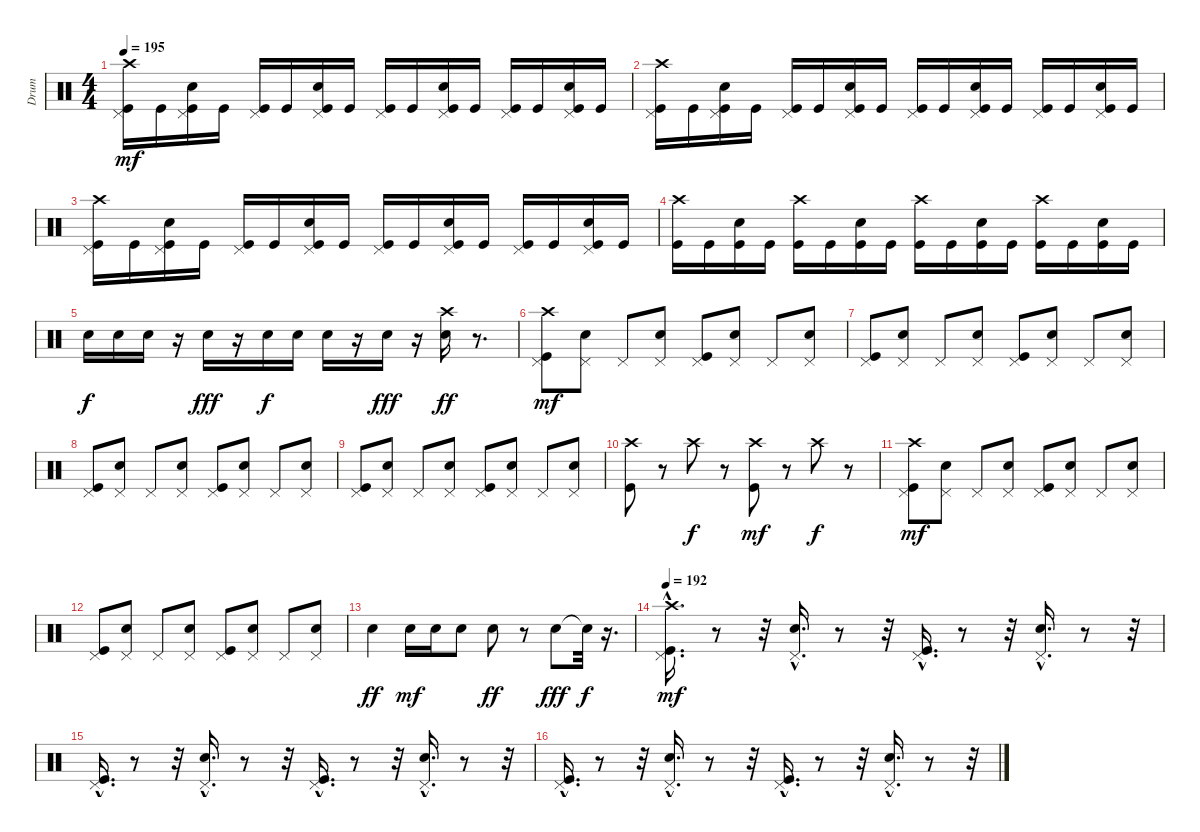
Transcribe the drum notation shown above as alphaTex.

\track ("Drum" "Drum") {instrument percussion}
\staff {score}
\articulation defaults
\ts (4 4)
\tempo 195
\clef neutral
\ks c
("Crash high (hit)" "Pedal Hi-Hat (hit)" "Kick (hit)").16{dy mf} "Kick (hit)".16 ("Pedal Hi-Hat (hit)" "Snare (hit) 2" "Kick (hit)").16 "Kick (hit)".16 ("Pedal Hi-Hat (hit)" "Kick (hit)").16 "Kick (hit)".16 ("Pedal Hi-Hat (hit)" "Snare (hit) 2" "Kick (hit)").16 "Kick (hit)".16 ("Pedal Hi-Hat (hit)" "Kick (hit)").16 "Kick (hit)".16 ("Pedal Hi-Hat (hit)" "Snare (hit) 2" "Kick (hit)").16 "Kick (hit)".16 ("Pedal Hi-Hat (hit)" "Kick (hit)").16 "Kick (hit)".16 ("Pedal Hi-Hat (hit)" "Snare (hit) 2" "Kick (hit)").16 "Kick (hit)".16 |
("Crash high (hit)" "Pedal Hi-Hat (hit)" "Kick (hit)").16 "Kick (hit)".16 ("Pedal Hi-Hat (hit)" "Snare (hit) 2" "Kick (hit)").16 "Kick (hit)".16 ("Pedal Hi-Hat (hit)" "Kick (hit)").16 "Kick (hit)".16 ("Pedal Hi-Hat (hit)" "Snare (hit) 2" "Kick (hit)").16 "Kick (hit)".16 ("Pedal Hi-Hat (hit)" "Kick (hit)").16 "Kick (hit)".16 ("Pedal Hi-Hat (hit)" "Snare (hit) 2" "Kick (hit)").16 "Kick (hit)".16 ("Pedal Hi-Hat (hit)" "Kick (hit)").16 "Kick (hit)".16 ("Pedal Hi-Hat (hit)" "Snare (hit) 2" "Kick (hit)").16 "Kick (hit)".16 |
("Crash high (hit)" "Pedal Hi-Hat (hit)" "Kick (hit)").16 "Kick (hit)".16 ("Pedal Hi-Hat (hit)" "Snare (hit) 2" "Kick (hit)").16 "Kick (hit)".16 ("Pedal Hi-Hat (hit)" "Kick (hit)").16 "Kick (hit)".16 ("Pedal Hi-Hat (hit)" "Snare (hit) 2" "Kick (hit)").16 "Kick (hit)".16 ("Pedal Hi-Hat (hit)" "Kick (hit)").16 "Kick (hit)".16 ("Pedal Hi-Hat (hit)" "Snare (hit) 2" "Kick (hit)").16 "Kick (hit)".16 ("Pedal Hi-Hat (hit)" "Kick (hit)").16 "Kick (hit)".16 ("Pedal Hi-Hat (hit)" "Snare (hit) 2" "Kick (hit)").16 "Kick (hit)".16 |
("Crash high (hit)" "Kick (hit)").16 "Kick (hit)".16 ("Snare (hit) 2" "Kick (hit)").16 "Kick (hit)".16 ("Crash high (hit)" "Kick (hit)").16 "Kick (hit)".16 ("Snare (hit) 2" "Kick (hit)").16 "Kick (hit)".16 ("Crash high (hit)" "Kick (hit)").16 "Kick (hit)".16 ("Snare (hit) 2" "Kick (hit)").16 "Kick (hit)".16 ("Crash high (hit)" "Kick (hit)").16 "Kick (hit)".16 ("Snare (hit) 2" "Kick (hit)").16 "Kick (hit)".16 |
"Snare (hit) 2".16{dy f} "Snare (hit) 2".16 "Snare (hit) 2".16 r.16 "Snare (hit) 2".16{dy fff} r.16 "Snare (hit) 2".16{dy f} "Snare (hit) 2".16 "Snare (hit) 2".16 r.16 "Snare (hit) 2".16{dy fff} r.16 ("Crash high (hit)" "Snare (hit) 2").16{dy ff} r.8{d} |
("Pedal Hi-Hat (hit)" "Kick (hit)" "Crash high (hit)").8{dy mf} ("Pedal Hi-Hat (hit)" "Snare (hit) 2").8 "Pedal Hi-Hat (hit)".8 ("Pedal Hi-Hat (hit)" "Snare (hit) 2").8 ("Pedal Hi-Hat (hit)" "Kick (hit)").8 ("Pedal Hi-Hat (hit)" "Snare (hit) 2").8 "Pedal Hi-Hat (hit)".8 ("Pedal Hi-Hat (hit)" "Snare (hit) 2").8 |
("Pedal Hi-Hat (hit)" "Kick (hit)").8 ("Pedal Hi-Hat (hit)" "Snare (hit) 2").8 "Pedal Hi-Hat (hit)".8 ("Pedal Hi-Hat (hit)" "Snare (hit) 2").8 ("Pedal Hi-Hat (hit)" "Kick (hit)").8 ("Pedal Hi-Hat (hit)" "Snare (hit) 2").8 "Pedal Hi-Hat (hit)".8 ("Pedal Hi-Hat (hit)" "Snare (hit) 2").8 |
("Pedal Hi-Hat (hit)" "Kick (hit)").8 ("Pedal Hi-Hat (hit)" "Snare (hit) 2").8 "Pedal Hi-Hat (hit)".8 ("Pedal Hi-Hat (hit)" "Snare (hit) 2").8 ("Pedal Hi-Hat (hit)" "Kick (hit)").8 ("Pedal Hi-Hat (hit)" "Snare (hit) 2").8 "Pedal Hi-Hat (hit)".8 ("Pedal Hi-Hat (hit)" "Snare (hit) 2").8 |
("Pedal Hi-Hat (hit)" "Kick (hit)").8 ("Pedal Hi-Hat (hit)" "Snare (hit) 2").8 "Pedal Hi-Hat (hit)".8 ("Pedal Hi-Hat (hit)" "Snare (hit) 2").8 ("Pedal Hi-Hat (hit)" "Kick (hit)").8 ("Pedal Hi-Hat (hit)" "Snare (hit) 2").8 "Pedal Hi-Hat (hit)".8 ("Pedal Hi-Hat (hit)" "Snare (hit) 2").8 |
("Crash high (hit)" "Kick (hit)").8 r.8 "Crash high (hit)".8{dy f} r.8 ("Crash high (hit)" "Kick (hit)").8{dy mf} r.8 "Crash high (hit)".8{dy f} r.8 |
("Pedal Hi-Hat (hit)" "Kick (hit)" "Crash high (hit)").8{dy mf} ("Pedal Hi-Hat (hit)" "Snare (hit) 2").8 "Pedal Hi-Hat (hit)".8 ("Pedal Hi-Hat (hit)" "Snare (hit) 2").8 ("Pedal Hi-Hat (hit)" "Kick (hit)").8 ("Pedal Hi-Hat (hit)" "Snare (hit) 2").8 "Pedal Hi-Hat (hit)".8 ("Pedal Hi-Hat (hit)" "Snare (hit) 2").8 |
("Pedal Hi-Hat (hit)" "Kick (hit)").8 ("Pedal Hi-Hat (hit)" "Snare (hit) 2").8 "Pedal Hi-Hat (hit)".8 ("Pedal Hi-Hat (hit)" "Snare (hit) 2").8 ("Pedal Hi-Hat (hit)" "Kick (hit)").8 ("Pedal Hi-Hat (hit)" "Snare (hit) 2").8 "Pedal Hi-Hat (hit)".8 ("Pedal Hi-Hat (hit)" "Snare (hit) 2").8 |
"Snare (hit) 2".4{dy ff} "Snare (hit) 2".16{dy mf} "Snare (hit) 2".16 "Snare (hit) 2".8 "Snare (hit) 2".8{dy ff} r.8 "Snare (hit) 2".8{dy fff} "Snare (hit)"{t}.32{dy f} r.16{d} |
\tempo 192
("Crash high (hit)" "Pedal Hi-Hat (hit)" "Kick (hit)"{hac}).16{d dy mf} r.8 r.32 ("Pedal Hi-Hat (hit)" "Snare (hit) 2"{hac}).16{d} r.8 r.32 ("Pedal Hi-Hat (hit)" "Kick (hit)"{hac}).16{d} r.8 r.32 ("Pedal Hi-Hat (hit)" "Snare (hit) 2"{hac}).16{d} r.8 r.32 |
("Pedal Hi-Hat (hit)" "Kick (hit)"{hac}).16{d} r.8 r.32 ("Pedal Hi-Hat (hit)" "Snare (hit) 2"{hac}).16{d} r.8 r.32 ("Pedal Hi-Hat (hit)" "Kick (hit)"{hac}).16{d} r.8 r.32 ("Pedal Hi-Hat (hit)" "Snare (hit) 2"{hac}).16{d} r.8 r.32 |
("Pedal Hi-Hat (hit)" "Kick (hit)"{hac}).16{d} r.8 r.32 ("Pedal Hi-Hat (hit)" "Snare (hit) 2"{hac}).16{d} r.8 r.32 ("Pedal Hi-Hat (hit)" "Kick (hit)"{hac}).16{d} r.8 r.32 ("Pedal Hi-Hat (hit)" "Snare (hit) 2"{hac}).16{d} r.8 r.32
